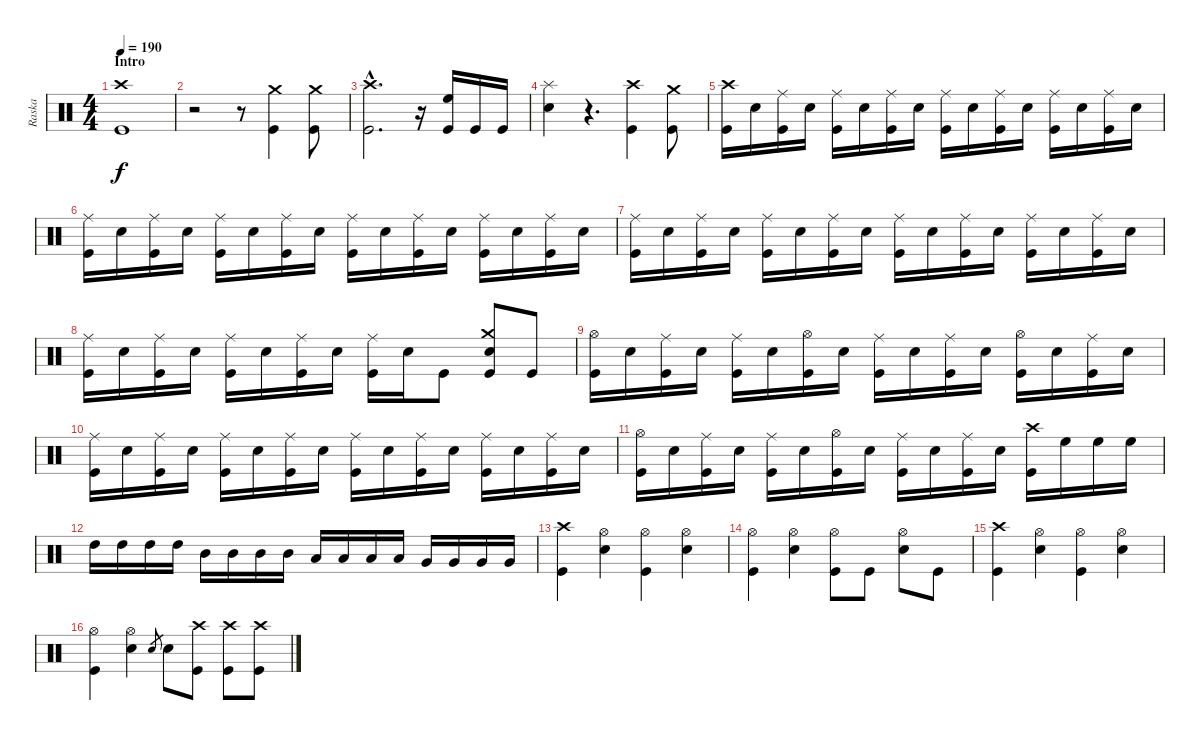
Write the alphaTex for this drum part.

\track ("Raska" "Raska") {instrument percussion}
\staff {score}
\articulation defaults
\ts (4 4)
\section ("" "Intro")
\tempo 190
\clef neutral
\ks c
("Crash high (hit)" "Kick (hit)").1{dy f} |
r.2 r.8 ("Crash medium (hit)" "Kick (hit)").4 ("Crash medium (hit)" "Kick (hit)").8 |
("Crash high (hit)"{hac} "Kick (hit)"{hac}).2{d} r.16 ("High Floor Tom (hit)" "Kick (hit)").16 "Kick (hit)".16 "Kick (hit)".16 |
("Splash (hit)" "Electric Snare (hit)").4 r.4{d} ("Crash high (hit)" "Kick (hit)").4 ("Crash medium (hit)" "Kick (hit)").8 |
("Crash high (hit)" "Kick (hit)").16 "Electric Snare (hit)".16 ("Ride (middle)" "Kick (hit)").16 "Electric Snare (hit)".16 ("Ride (middle)" "Kick (hit)").16 "Electric Snare (hit)".16 ("Ride (middle)" "Kick (hit)").16 "Electric Snare (hit)".16 ("Ride (middle)" "Kick (hit)").16 "Electric Snare (hit)".16 ("Ride (middle)" "Kick (hit)").16 "Electric Snare (hit)".16 ("Ride (middle)" "Kick (hit)").16 "Electric Snare (hit)".16 ("Ride (middle)" "Kick (hit)").16 "Electric Snare (hit)".16 |
("Ride (middle)" "Kick (hit)").16 "Electric Snare (hit)".16 ("Ride (middle)" "Kick (hit)").16 "Electric Snare (hit)".16 ("Ride (middle)" "Kick (hit)").16 "Electric Snare (hit)".16 ("Ride (middle)" "Kick (hit)").16 "Electric Snare (hit)".16 ("Ride (middle)" "Kick (hit)").16 "Electric Snare (hit)".16 ("Ride (middle)" "Kick (hit)").16 "Electric Snare (hit)".16 ("Ride (middle)" "Kick (hit)").16 "Electric Snare (hit)".16 ("Ride (middle)" "Kick (hit)").16 "Electric Snare (hit)".16 |
("Ride (middle)" "Kick (hit)").16 "Electric Snare (hit)".16 ("Ride (middle)" "Kick (hit)").16 "Electric Snare (hit)".16 ("Ride (middle)" "Kick (hit)").16 "Electric Snare (hit)".16 ("Ride (middle)" "Kick (hit)").16 "Electric Snare (hit)".16 ("Ride (middle)" "Kick (hit)").16 "Electric Snare (hit)".16 ("Ride (middle)" "Kick (hit)").16 "Electric Snare (hit)".16 ("Ride (middle)" "Kick (hit)").16 "Electric Snare (hit)".16 ("Ride (middle)" "Kick (hit)").16 "Electric Snare (hit)".16 |
("Ride (middle)" "Kick (hit)").16 "Electric Snare (hit)".16 ("Ride (middle)" "Kick (hit)").16 "Electric Snare (hit)".16 ("Ride (middle)" "Kick (hit)").16 "Electric Snare (hit)".16 ("Ride (middle)" "Kick (hit)").16 "Electric Snare (hit)".16 ("Ride (middle)" "Kick (hit)").16 "Electric Snare (hit)".16 "Kick (hit)".8 ("Crash medium (hit)" "Electric Snare (hit)" "Kick (hit)").8 "Kick (hit)".8 |
("Hi-Hat (open)" "Kick (hit)").16 "Electric Snare (hit)".16 ("Ride (middle)" "Kick (hit)").16 "Electric Snare (hit)".16 ("Ride (middle)" "Kick (hit)").16 "Electric Snare (hit)".16 ("Hi-Hat (open)" "Kick (hit)").16 "Electric Snare (hit)".16 ("Ride (middle)" "Kick (hit)").16 "Electric Snare (hit)".16 ("Ride (middle)" "Kick (hit)").16 "Electric Snare (hit)".16 ("Hi-Hat (open)" "Kick (hit)").16 "Electric Snare (hit)".16 ("Ride (middle)" "Kick (hit)").16 "Electric Snare (hit)".16 |
("Ride (middle)" "Kick (hit)").16 "Electric Snare (hit)".16 ("Ride (middle)" "Kick (hit)").16 "Electric Snare (hit)".16 ("Ride (middle)" "Kick (hit)").16 "Electric Snare (hit)".16 ("Ride (middle)" "Kick (hit)").16 "Electric Snare (hit)".16 ("Ride (middle)" "Kick (hit)").16 "Electric Snare (hit)".16 ("Ride (middle)" "Kick (hit)").16 "Electric Snare (hit)".16 ("Ride (middle)" "Kick (hit)").16 "Electric Snare (hit)".16 ("Ride (middle)" "Kick (hit)").16 "Electric Snare (hit)".16 |
("Hi-Hat (open)" "Kick (hit)").16 "Electric Snare (hit)".16 ("Ride (middle)" "Kick (hit)").16 "Electric Snare (hit)".16 ("Ride (middle)" "Kick (hit)").16 "Electric Snare (hit)".16 ("Hi-Hat (open)" "Kick (hit)").16 "Electric Snare (hit)".16 ("Ride (middle)" "Kick (hit)").16 "Electric Snare (hit)".16 ("Ride (middle)" "Kick (hit)").16 "Electric Snare (hit)".16 ("Crash high (hit)" "Kick (hit)").16 "High Floor Tom (hit)".16 "High Floor Tom (hit)".16 "High Floor Tom (hit)".16 |
"High Tom (hit)".16 "High Tom (hit)".16 "High Tom (hit)".16 "High Tom (hit)".16 "Mid Tom (hit)".16 "Mid Tom (hit)".16 "Mid Tom (hit)".16 "Mid Tom (hit)".16 "Low Tom (hit)".16 "Low Tom (hit)".16 "Low Tom (hit)".16 "Low Tom (hit)".16 "Very Low Tom (hit)".16 "Very Low Tom (hit)".16 "Very Low Tom (hit)".16 "Very Low Tom (hit)".16 |
("Crash high (hit)" "Kick (hit)").4 ("Hi-Hat (open)" "Electric Snare (hit)").4 ("Hi-Hat (open)" "Kick (hit)").4 ("Hi-Hat (open)" "Electric Snare (hit)").4 |
("Hi-Hat (open)" "Kick (hit)").4 ("Hi-Hat (open)" "Electric Snare (hit)").4 ("Hi-Hat (open)" "Kick (hit)").8 "Kick (hit)".8 ("Hi-Hat (open)" "Electric Snare (hit)").8 "Kick (hit)".8 |
("Crash high (hit)" "Kick (hit)").4 ("Hi-Hat (open)" "Electric Snare (hit)").4 ("Hi-Hat (open)" "Kick (hit)").4 ("Hi-Hat (open)" "Electric Snare (hit)").4 |
("Hi-Hat (open)" "Kick (hit)").4 ("Hi-Hat (open)" "Electric Snare (hit)").4 "Electric Snare (hit)".8{gr} "Electric Snare (hit)".8 ("Crash high (hit)" "Kick (hit)").8 ("Crash high (hit)" "Kick (hit)").8 ("Crash high (hit)" "Kick (hit)").8
